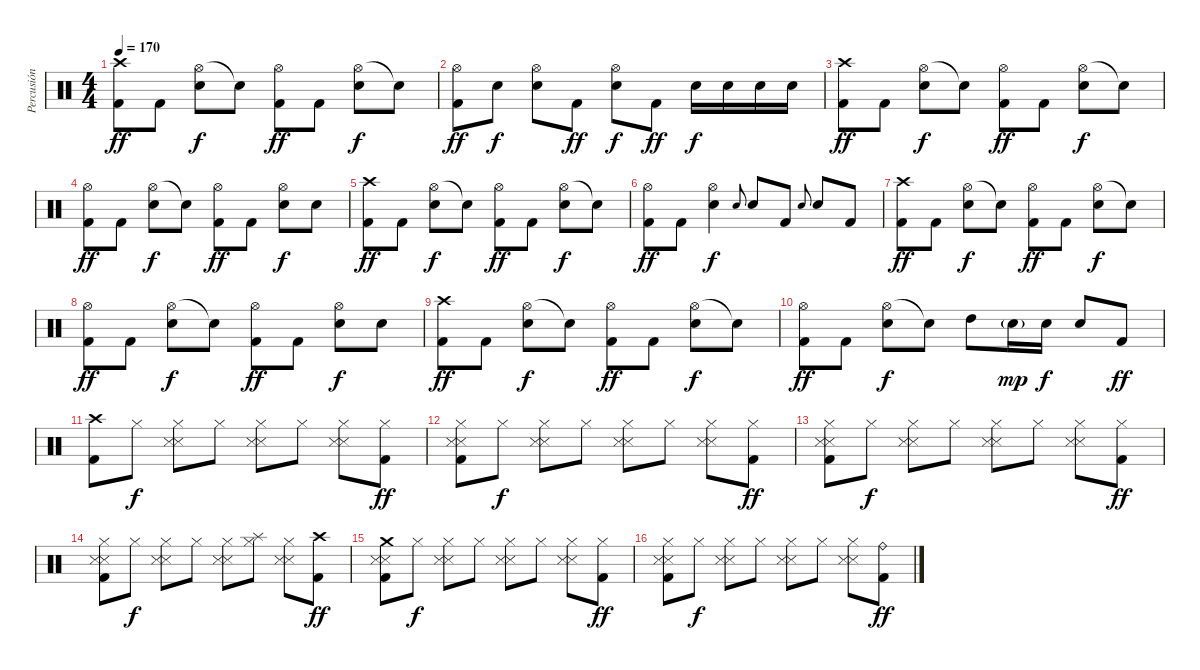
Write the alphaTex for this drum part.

\track ("Percusión" "Percusión") {instrument percussion}
\staff {score}
\articulation defaults
\ts (4 4)
\tempo 170
\clef neutral
\ks c
("Crash high (hit)" "Kick (hit) 2").8{dy ff} "Kick (hit) 2".8 ("Hi-Hat (open)" "Snare (hit) 2").8{dy f} "Snare (hit)"{t}.8 ("Hi-Hat (open)" "Kick (hit) 2").8{dy ff} "Kick (hit) 2".8 ("Hi-Hat (open)" "Snare (hit) 2").8{dy f} "Snare (hit)"{t}.8 |
("Hi-Hat (open)" "Kick (hit) 2").8{dy ff} "Snare (hit) 2".8{dy f} ("Hi-Hat (open)" "Snare (hit) 2").8 "Kick (hit) 2".8{dy ff} ("Hi-Hat (open)" "Snare (hit) 2").8{dy f} "Kick (hit) 2".8{dy ff} "Snare (hit) 2".16{dy f} "Snare (hit) 2".16 "Snare (hit) 2".16 "Snare (hit) 2".16 |
("Crash high (hit)" "Kick (hit) 2").8{dy ff} "Kick (hit) 2".8 ("Hi-Hat (open)" "Snare (hit) 2").8{dy f} "Snare (hit)"{t}.8 ("Hi-Hat (open)" "Kick (hit) 2").8{dy ff} "Kick (hit) 2".8 ("Hi-Hat (open)" "Snare (hit) 2").8{dy f} "Snare (hit)"{t}.8 |
("Hi-Hat (open)" "Kick (hit) 2").8{dy ff} "Kick (hit) 2".8 ("Hi-Hat (open)" "Snare (hit) 2").8{dy f} "Snare (hit)"{t}.8 ("Hi-Hat (open)" "Kick (hit) 2").8{dy ff} "Kick (hit) 2".8 ("Hi-Hat (open)" "Snare (hit) 2").8{dy f} "Snare (hit) 2".8 |
("Crash high (hit)" "Kick (hit) 2").8{dy ff} "Kick (hit) 2".8 ("Hi-Hat (open)" "Snare (hit) 2").8{dy f} "Snare (hit)"{t}.8 ("Hi-Hat (open)" "Kick (hit) 2").8{dy ff} "Kick (hit) 2".8 ("Hi-Hat (open)" "Snare (hit) 2").8{dy f} "Snare (hit)"{t}.8 |
("Hi-Hat (open)" "Kick (hit) 2").8{dy ff} "Kick (hit) 2".8 ("Hi-Hat (open)" "Snare (hit) 2").4{dy f} "Snare (hit) 2".8{gr onbeat} "Snare (hit) 2".8 "Kick (hit) 2".8 "Snare (hit) 2".8{gr onbeat} "Snare (hit) 2".8 "Kick (hit) 2".8 |
("Crash high (hit)" "Kick (hit) 2").8{dy ff} "Kick (hit) 2".8 ("Hi-Hat (open)" "Snare (hit) 2").8{dy f} "Snare (hit)"{t}.8 ("Hi-Hat (open)" "Kick (hit) 2").8{dy ff} "Kick (hit) 2".8 ("Hi-Hat (open)" "Snare (hit) 2").8{dy f} "Snare (hit)"{t}.8 |
("Hi-Hat (open)" "Kick (hit) 2").8{dy ff} "Kick (hit) 2".8 ("Hi-Hat (open)" "Snare (hit) 2").8{dy f} "Snare (hit)"{t}.8 ("Hi-Hat (open)" "Kick (hit) 2").8{dy ff} "Kick (hit) 2".8 ("Hi-Hat (open)" "Snare (hit) 2").8{dy f} "Snare (hit) 2".8 |
("Crash high (hit)" "Kick (hit) 2").8{dy ff} "Kick (hit) 2".8 ("Hi-Hat (open)" "Snare (hit) 2").8{dy f} "Snare (hit)"{t}.8 ("Hi-Hat (open)" "Kick (hit) 2").8{dy ff} "Kick (hit) 2".8 ("Hi-Hat (open)" "Snare (hit) 2").8{dy f} "Snare (hit)"{t}.8 |
("Hi-Hat (open)" "Kick (hit) 2").8{dy ff} "Kick (hit) 2".8 ("Hi-Hat (open)" "Snare (hit) 2").8{dy f} "Snare (hit)"{t}.8 "High Tom (hit)".8 "Snare (hit) 2"{g}.16{dy mp} "Snare (hit) 2".16{dy f} "Snare (hit) 2".8 "Kick (hit) 2".8{dy ff} |
("Crash high (hit)" "Kick (hit) 2").8 "Hi-Hat (closed)".8{dy f} ("Hi-Hat (closed)" "Snare (side stick) 3" "Snare (side stick) 3").8 "Hi-Hat (closed)".8 ("Hi-Hat (closed)" "Snare (side stick) 3" "Snare (side stick) 3").8 "Hi-Hat (closed)".8 ("Hi-Hat (closed)" "Snare (side stick) 3" "Snare (side stick) 3").8 ("Hi-Hat (closed)" "Kick (hit) 2").8{dy ff} |
("Hi-Hat (closed)" "Snare (side stick) 3" "Snare (side stick) 3" "Kick (hit) 2").8 "Hi-Hat (closed)".8{dy f} ("Hi-Hat (closed)" "Snare (side stick) 3" "Snare (side stick) 3").8 "Hi-Hat (closed)".8 ("Hi-Hat (closed)" "Snare (side stick) 3" "Snare (side stick) 3").8 "Hi-Hat (closed)".8 ("Hi-Hat (closed)" "Snare (side stick) 3" "Snare (side stick) 3").8 ("Hi-Hat (closed)" "Kick (hit) 2").8{dy ff} |
("Hi-Hat (closed)" "Snare (side stick) 3" "Snare (side stick) 3" "Kick (hit) 2").8 "Hi-Hat (closed)".8{dy f} ("Hi-Hat (closed)" "Snare (side stick) 3" "Snare (side stick) 3").8 "Hi-Hat (closed)".8 ("Hi-Hat (closed)" "Snare (side stick) 3" "Snare (side stick) 3").8 "Hi-Hat (closed)".8 ("Hi-Hat (closed)" "Snare (side stick) 3" "Snare (side stick) 3").8 ("Hi-Hat (closed)" "Kick (hit) 2").8{dy ff} |
("Hi-Hat (closed)" "Snare (side stick) 3" "Snare (side stick) 3" "Kick (hit) 2").8 "Hi-Hat (closed)".8{dy f} ("Hi-Hat (closed)" "Snare (side stick) 3" "Snare (side stick) 3").8 "Hi-Hat (closed)".8 ("Hi-Hat (closed)" "Snare (side stick) 3" "Snare (side stick) 3").8 ("Splash (hit)" "Hi-Hat (closed)").8 ("Hi-Hat (closed)" "Snare (side stick) 3" "Snare (side stick) 3").8 ("Crash high (hit)" "Kick (hit) 2").8{dy ff} |
("Crash medium (hit)" "Snare (side stick) 3" "Snare (side stick) 3" "Kick (hit) 2").8 "Hi-Hat (closed)".8{dy f} ("Hi-Hat (closed)" "Snare (side stick) 3" "Snare (side stick) 3").8 "Hi-Hat (closed)".8 ("Hi-Hat (closed)" "Snare (side stick) 3" "Snare (side stick) 3").8 "Hi-Hat (closed)".8 ("Hi-Hat (closed)" "Snare (side stick) 3" "Snare (side stick) 3").8 ("Hi-Hat (closed)" "Kick (hit) 2").8{dy ff} |
("Hi-Hat (closed)" "Snare (side stick) 3" "Snare (side stick) 3" "Kick (hit) 2").8 "Hi-Hat (closed)".8{dy f} ("Hi-Hat (closed)" "Snare (side stick) 3" "Snare (side stick) 3").8 "Hi-Hat (closed)".8 ("Hi-Hat (closed)" "Snare (side stick) 3" "Snare (side stick) 3").8 "Hi-Hat (closed)".8 ("Hi-Hat (closed)" "Snare (side stick) 3" "Snare (side stick) 3").8 ("Ride (bell)" "Kick (hit) 2").8{dy ff}
